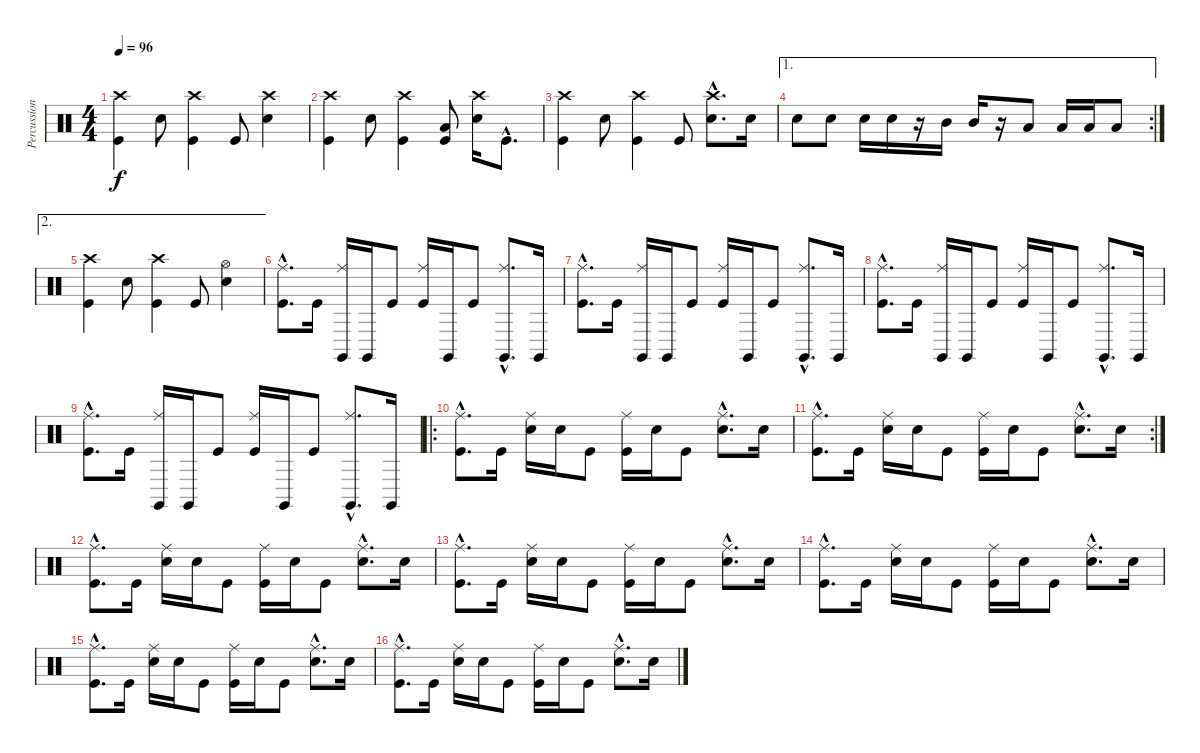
\track ("Percussion" "Percussion") {instrument percussion}
\staff {score}
\articulation defaults
\ts (4 4)
\tempo 96
\clef neutral
\ks c
("Crash high (hit)" "Kick (hit)").4{dy f} "Electric Snare (hit)".8 ("Crash high (hit)" "Kick (hit)").4 "Kick (hit)".8 ("Crash high (hit)" "Electric Snare (hit)").4 |
("Crash high (hit)" "Kick (hit)").4 "Electric Snare (hit)".8 ("Crash high (hit)" "Kick (hit)").4 ("Low Tom (hit)" "Kick (hit)").8 ("Crash high (hit)" "Electric Snare (hit)").16 "Kick (hit)"{hac}.8{d} |
("Crash high (hit)" "Kick (hit)").4 "Electric Snare (hit)".8 ("Crash high (hit)" "Kick (hit)").4 "Kick (hit)".8 ("Crash high (hit)"{hac} "Electric Snare (hit)"{hac}).8{d} "Electric Snare (hit)".16 |
\ae 1
\rc 2 "Electric Snare (hit)".8 "Electric Snare (hit)".8 "Electric Snare (hit)".16 "Electric Snare (hit)".16
r.16 "Mid Tom (hit)".16 "Mid Tom (hit)".16 r.16 "Low Tom (hit)".8 "Low Tom (hit)".16 "Low Tom (hit)".16 "Low Tom (hit)".8 |
\ae 2
("Crash high (hit)" "Kick (hit)").4 "Electric Snare (hit)".8 ("Crash high (hit)" "Kick (hit)").4 "Kick (hit)".8 ("Hi-Hat (open)" "Electric Snare (hit)").4 |
("Ride (middle)"{hac} "Kick (hit)"{hac}).8{d} "Kick (hit)".16 ("Ride (middle)" "Claves (hit)").16 "Claves (hit)".16 "Kick (hit)".8 ("Ride (middle)" "Kick (hit)").16 "Claves (hit)".16 "Kick (hit)".8 ("Ride (middle)"{hac} "Claves (hit)"{hac}).8{d} "Claves (hit)".16 |
("Ride (middle)"{hac} "Kick (hit)"{hac}).8{d} "Kick (hit)".16 ("Ride (middle)" "Claves (hit)").16 "Claves (hit)".16 "Kick (hit)".8 ("Ride (middle)" "Kick (hit)").16 "Claves (hit)".16 "Kick (hit)".8 ("Ride (middle)"{hac} "Claves (hit)"{hac}).8{d} "Claves (hit)".16 |
("Ride (middle)"{hac} "Kick (hit)"{hac}).8{d} "Kick (hit)".16 ("Ride (middle)" "Claves (hit)").16 "Claves (hit)".16 "Kick (hit)".8 ("Ride (middle)" "Kick (hit)").16 "Claves (hit)".16 "Kick (hit)".8 ("Ride (middle)"{hac} "Claves (hit)"{hac}).8{d} "Claves (hit)".16 |
("Ride (middle)"{hac} "Kick (hit)"{hac}).8{d} "Kick (hit)".16 ("Ride (middle)" "Claves (hit)").16 "Claves (hit)".16 "Kick (hit)".8 ("Ride (middle)" "Kick (hit)").16 "Claves (hit)".16 "Kick (hit)".8 ("Ride (middle)"{hac} "Claves (hit)"{hac}).8{d} "Claves (hit)".16 |
\ro
("Ride (middle)"{hac} "Kick (hit)"{hac}).8{d} "Kick (hit)".16 ("Ride (middle)" "Electric Snare (hit)").16 "Electric Snare (hit)".16 "Kick (hit)".8 ("Ride (middle)" "Kick (hit)").16 "Electric Snare (hit)".16 "Kick (hit)".8 ("Ride (middle)"{hac} "Electric Snare (hit)"{hac}).8{d} "Electric Snare (hit)".16 |
\rc 2
("Ride (middle)"{hac} "Kick (hit)"{hac}).8{d} "Kick (hit)".16 ("Ride (middle)" "Electric Snare (hit)").16 "Electric Snare (hit)".16 "Kick (hit)".8 ("Ride (middle)" "Kick (hit)").16 "Electric Snare (hit)".16 "Kick (hit)".8 ("Ride (middle)"{hac} "Electric Snare (hit)"{hac}).8{d} "Electric Snare (hit)".16 |
("Ride (middle)"{hac} "Kick (hit)"{hac}).8{d} "Kick (hit)".16 ("Ride (middle)" "Electric Snare (hit)").16 "Electric Snare (hit)".16 "Kick (hit)".8 ("Ride (middle)" "Kick (hit)").16 "Electric Snare (hit)".16 "Kick (hit)".8 ("Ride (middle)"{hac} "Electric Snare (hit)"{hac}).8{d} "Electric Snare (hit)".16 |
("Ride (middle)"{hac} "Kick (hit)"{hac}).8{d} "Kick (hit)".16 ("Ride (middle)" "Electric Snare (hit)").16 "Electric Snare (hit)".16 "Kick (hit)".8 ("Ride (middle)" "Kick (hit)").16 "Electric Snare (hit)".16 "Kick (hit)".8 ("Ride (middle)"{hac} "Electric Snare (hit)"{hac}).8{d} "Electric Snare (hit)".16 |
("Ride (middle)"{hac} "Kick (hit)"{hac}).8{d} "Kick (hit)".16 ("Ride (middle)" "Electric Snare (hit)").16 "Electric Snare (hit)".16 "Kick (hit)".8 ("Ride (middle)" "Kick (hit)").16 "Electric Snare (hit)".16 "Kick (hit)".8 ("Ride (middle)"{hac} "Electric Snare (hit)"{hac}).8{d} "Electric Snare (hit)".16 |
("Ride (middle)"{hac} "Kick (hit)"{hac}).8{d} "Kick (hit)".16 ("Ride (middle)" "Electric Snare (hit)").16 "Electric Snare (hit)".16 "Kick (hit)".8 ("Ride (middle)" "Kick (hit)").16 "Electric Snare (hit)".16 "Kick (hit)".8 ("Ride (middle)"{hac} "Electric Snare (hit)"{hac}).8{d} "Electric Snare (hit)".16 |
("Ride (middle)"{hac} "Kick (hit)"{hac}).8{d} "Kick (hit)".16 ("Ride (middle)" "Electric Snare (hit)").16 "Electric Snare (hit)".16 "Kick (hit)".8 ("Ride (middle)" "Kick (hit)").16 "Electric Snare (hit)".16 "Kick (hit)".8 ("Ride (middle)"{hac} "Electric Snare (hit)"{hac}).8{d} "Electric Snare (hit)".16
